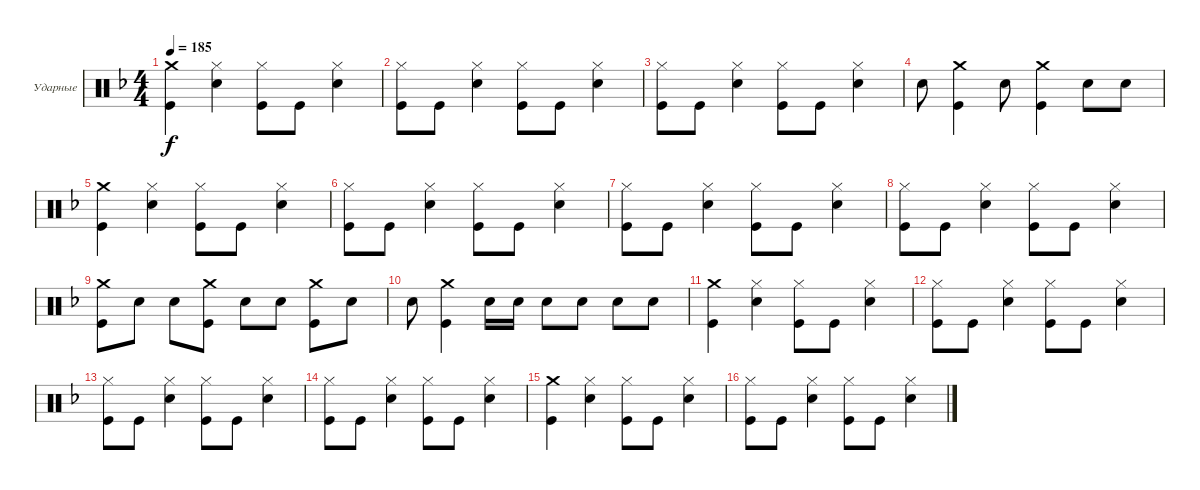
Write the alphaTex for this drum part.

\bracketExtendMode groupsimilarinstruments
\firstSystemTrackNameOrientation horizontal
\otherSystemsTrackNameOrientation horizontal
\track ("Александр Львов" "Ударные") {instrument percussion}
\staff {score}
\articulation defaults
\ts (4 4)
\tempo 185
\clef neutral
\ks dminor
("Kick (hit)" "Crash medium (hit)").4{dy f} ("Snare (hit) 2" "Hi-Hat (closed)").4 ("Kick (hit)" "Hi-Hat (closed)").8 "Kick (hit)".8 ("Hi-Hat (closed)" "Snare (hit) 2").4 |
("Kick (hit)" "Hi-Hat (closed)").8 "Kick (hit)".8 ("Snare (hit) 2" "Hi-Hat (closed)").4 ("Kick (hit)" "Hi-Hat (closed)").8 "Kick (hit)".8 ("Hi-Hat (closed)" "Snare (hit) 2").4 |
("Kick (hit)" "Hi-Hat (closed)").8 "Kick (hit)".8 ("Snare (hit) 2" "Hi-Hat (closed)").4 ("Kick (hit)" "Hi-Hat (closed)").8 "Kick (hit)".8 ("Hi-Hat (closed)" "Snare (hit) 2").4 |
"Snare (hit) 2".8 ("Kick (hit)" "Crash medium (hit)").4 "Snare (hit) 2".8 ("Kick (hit)" "Crash medium (hit)").4 "Snare (hit) 2".8 "Snare (hit) 2".8 |
("Kick (hit)" "Crash medium (hit)").4 ("Snare (hit) 2" "Hi-Hat (closed)").4 ("Kick (hit)" "Hi-Hat (closed)").8 "Kick (hit)".8 ("Hi-Hat (closed)" "Snare (hit) 2").4 |
("Kick (hit)" "Hi-Hat (closed)").8 "Kick (hit)".8 ("Snare (hit) 2" "Hi-Hat (closed)").4 ("Kick (hit)" "Hi-Hat (closed)").8 "Kick (hit)".8 ("Hi-Hat (closed)" "Snare (hit) 2").4 |
("Kick (hit)" "Hi-Hat (closed)").8 "Kick (hit)".8 ("Snare (hit) 2" "Hi-Hat (closed)").4 ("Kick (hit)" "Hi-Hat (closed)").8 "Kick (hit)".8 ("Hi-Hat (closed)" "Snare (hit) 2").4 |
("Kick (hit)" "Hi-Hat (closed)").8 "Kick (hit)".8 ("Snare (hit) 2" "Hi-Hat (closed)").4 ("Kick (hit)" "Hi-Hat (closed)").8 "Kick (hit)".8 ("Hi-Hat (closed)" "Snare (hit) 2").4 |
("Kick (hit)" "Crash medium (hit)").8 "Snare (hit) 2".8 "Snare (hit) 2".8 ("Kick (hit)" "Crash medium (hit)").8 "Snare (hit) 2".8 "Snare (hit) 2".8 ("Kick (hit)" "Crash medium (hit)").8 "Snare (hit) 2".8 |
"Snare (hit) 2".8 ("Kick (hit)" "Crash medium (hit)").4 "Snare (hit) 2".16 "Snare (hit) 2".16 "Snare (hit) 2".8 "Snare (hit) 2".8 "Snare (hit) 2".8 "Snare (hit) 2".8 |
("Kick (hit)" "Crash medium (hit)").4 ("Snare (hit) 2" "Hi-Hat (closed)").4 ("Kick (hit)" "Hi-Hat (closed)").8 "Kick (hit)".8 ("Hi-Hat (closed)" "Snare (hit) 2").4 |
("Kick (hit)" "Hi-Hat (closed)").8 "Kick (hit)".8 ("Snare (hit) 2" "Hi-Hat (closed)").4 ("Kick (hit)" "Hi-Hat (closed)").8 "Kick (hit)".8 ("Hi-Hat (closed)" "Snare (hit) 2").4 |
("Kick (hit)" "Hi-Hat (closed)").8 "Kick (hit)".8 ("Snare (hit) 2" "Hi-Hat (closed)").4 ("Kick (hit)" "Hi-Hat (closed)").8 "Kick (hit)".8 ("Hi-Hat (closed)" "Snare (hit) 2").4 |
("Kick (hit)" "Hi-Hat (closed)").8 "Kick (hit)".8 ("Snare (hit) 2" "Hi-Hat (closed)").4 ("Kick (hit)" "Hi-Hat (closed)").8 "Kick (hit)".8 ("Hi-Hat (closed)" "Snare (hit) 2").4 |
("Kick (hit)" "Crash medium (hit)").4 ("Snare (hit) 2" "Hi-Hat (closed)").4 ("Kick (hit)" "Hi-Hat (closed)").8 "Kick (hit)".8 ("Hi-Hat (closed)" "Snare (hit) 2").4 |
("Kick (hit)" "Hi-Hat (closed)").8 "Kick (hit)".8 ("Snare (hit) 2" "Hi-Hat (closed)").4 ("Kick (hit)" "Hi-Hat (closed)").8 "Kick (hit)".8 ("Hi-Hat (closed)" "Snare (hit) 2").4
